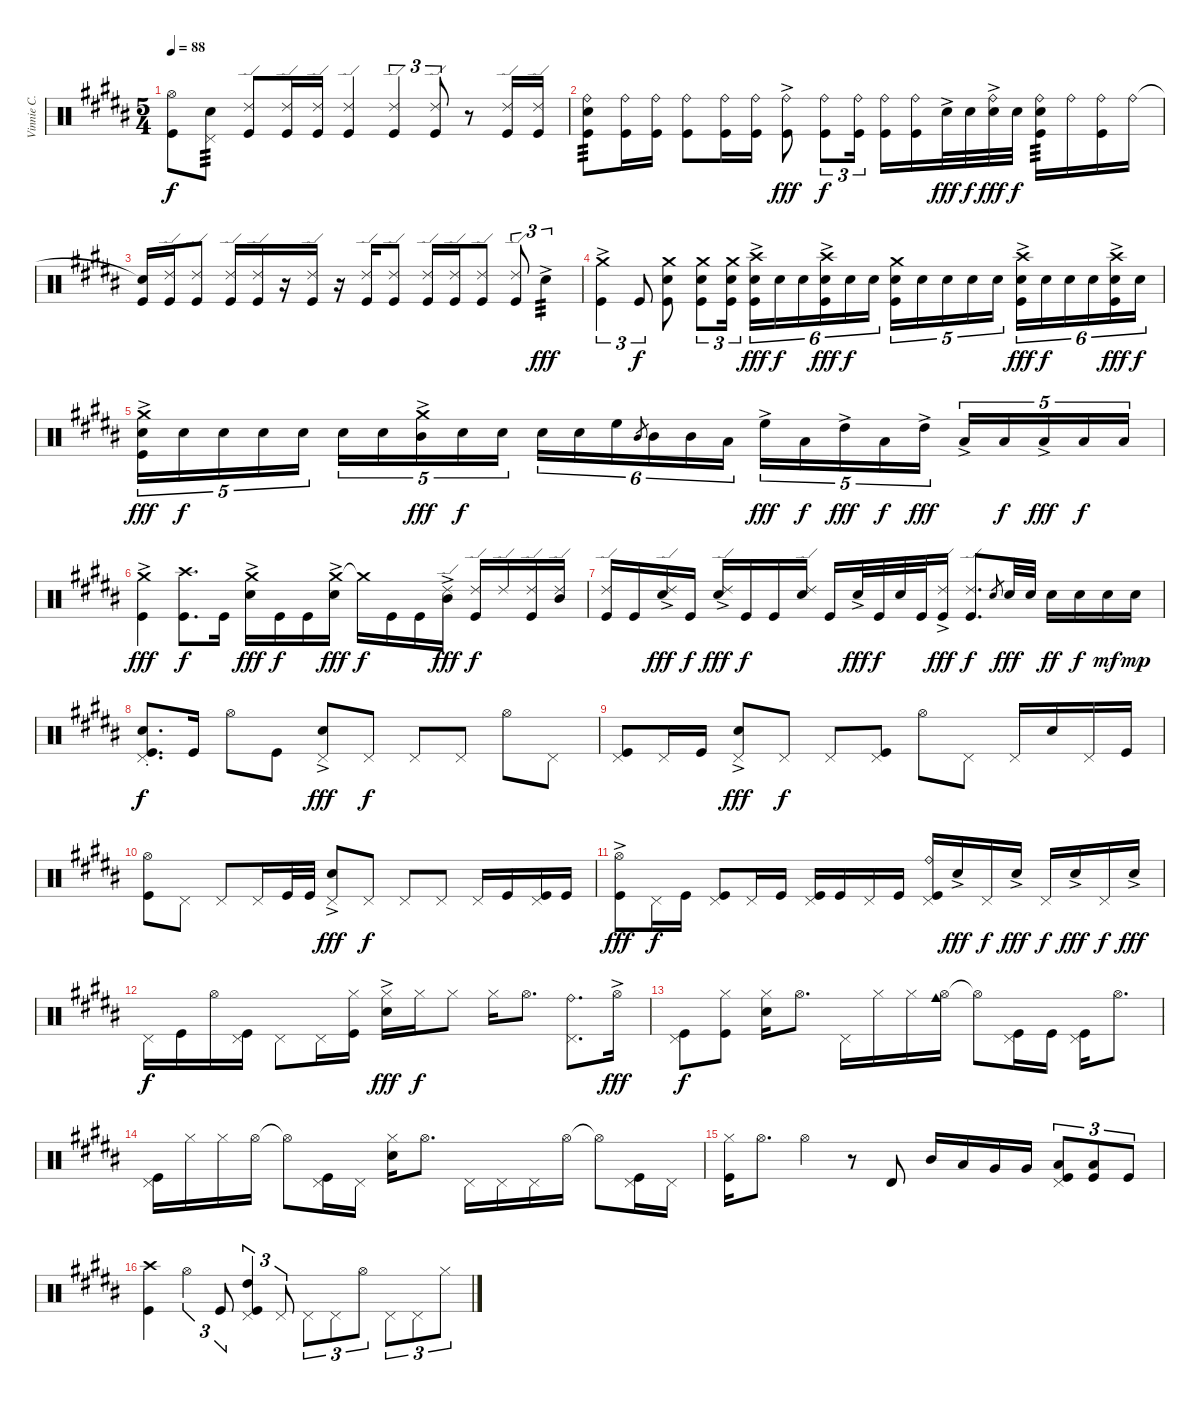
\track ("Vinnie C." "Vinnie C.") {instrument percussion}
\staff {score}
\articulation defaults
\ts (5 4)
\tempo 88
\clef neutral
\ks b
("Hi-Hat (open)" "Kick (hit)").8{dy f} ("Pedal Hi-Hat (hit)" "Electric Snare (hit)").8{tp 3} ("Ride (edge) 2" "Kick (hit)").8 ("Ride (edge) 2" "Kick (hit)").16 ("Ride (edge) 2" "Kick (hit)").16 ("Ride (edge) 2" "Kick (hit)").4 ("Ride (edge) 2" "Kick (hit)").4{tu (3 2)} ("Ride (edge) 2" "Kick (hit)").8{tu (3 2)} r.8 ("Ride (edge) 2" "Kick (hit)").16 ("Ride (edge) 2" "Kick (hit)").16 |
("Ride (bell)" "Electric Snare (hit)" "Kick (hit)").8{tp 3} ("Ride (bell)" "Kick (hit)").16 ("Ride (bell)" "Kick (hit)").16 ("Ride (bell)" "Kick (hit)").8 ("Ride (bell)" "Kick (hit)").16 ("Ride (bell)" "Kick (hit)").16 ("Ride (bell)"{ac} "Kick (hit)").8{dy fff} ("Ride (bell)" "Kick (hit)").8{tu (3 2) dy f} ("Ride (bell)" "Kick (hit)").16{tu (3 2)} ("Ride (bell)" "Kick (hit)").16 ("Ride (bell)" "Kick (hit)").16 "Electric Snare (hit)"{ac}.32{dy fff} "Electric Snare (hit)".32{dy f} ("Ride (bell)" "Electric Snare (hit)"{ac}).32{dy fff} "Electric Snare (hit)".32{dy f} ("Ride (bell)" "Electric Snare (hit)" "Kick (hit)").16{tp 3} "Ride (bell)".16 ("Ride (bell)" "Kick (hit)").16 "Ride (bell)".16 |
("Electric Snare (hit)"{t} "Kick (hit)").16 ("Ride (edge) 2" "Kick (hit)").16 ("Ride (edge) 2" "Kick (hit)").8 ("Ride (edge) 2" "Kick (hit)").16 ("Ride (edge) 2" "Kick (hit)").16 r.16 ("Ride (edge) 2" "Kick (hit)").16 r.16 ("Ride (edge) 2" "Kick (hit)").16 ("Ride (edge) 2" "Kick (hit)").8 ("Ride (edge) 2" "Kick (hit)").16 ("Ride (edge) 2" "Kick (hit)").16 ("Ride (edge) 2" "Kick (hit)").8 ("Ride (edge) 2" "Kick (hit)").8{tu (3 2)} "Electric Snare (hit)"{ac}.4{tu (3 2) tp 3 dy fff} |
("Crash medium (hit)"{ac} "Kick (hit)").4{tu (3 2)} "Kick (hit)".8{tu (3 2) dy f} ("Crash medium (hit)" "Electric Snare (hit)" "Kick (hit)").8 ("Crash medium (hit)" "Electric Snare (hit)" "Kick (hit)").8{tu (3 2)} ("Crash medium (hit)" "Electric Snare (hit)" "Kick (hit)").16{tu (3 2)} ("Crash high (hit)"{ac} "Electric Snare (hit)" "Kick (hit)").16{tu (6 4) dy fff} "Electric Snare (hit)".16{tu (6 4) dy f} "Electric Snare (hit)".16{tu (6 4)} ("Crash high (hit)"{ac} "Electric Snare (hit)" "Kick (hit)").16{tu (6 4) dy fff} "Electric Snare (hit)".16{tu (6 4) dy f} "Electric Snare (hit)".16{tu (6 4)} ("Crash medium (hit)" "Electric Snare (hit)" "Kick (hit)").16{tu (5 4)} "Electric Snare (hit)".16{tu (5 4)} "Electric Snare (hit)".16{tu (5 4)} "Electric Snare (hit)".16{tu (5 4)} "Electric Snare (hit)".16{tu (5 4)} ("Crash high (hit)"{ac} "Electric Snare (hit)" "Kick (hit)").16{tu (6 4) dy fff} "Electric Snare (hit)".16{tu (6 4) dy f} "Electric Snare (hit)".16{tu (6 4)} "Electric Snare (hit)".16{tu (6 4)} ("Crash high (hit)"{ac} "Electric Snare (hit)" "Kick (hit)").16{tu (6 4) dy fff} "Electric Snare (hit)".16{tu (6 4) dy f} |
("Crash medium (hit)"{ac} "Electric Snare (hit)" "Kick (hit)").16{tu (5 4) dy fff} "Electric Snare (hit)".16{tu (5 4) dy f} "Electric Snare (hit)".16{tu (5 4)} "Electric Snare (hit)".16{tu (5 4)} "Electric Snare (hit)".16{tu (5 4)} "Electric Snare (hit)".16{tu (5 4)} "Electric Snare (hit)".16{tu (5 4)} ("Crash medium (hit)"{ac} "Mid Tom (hit)").16{tu (5 4) dy fff} "Electric Snare (hit)".16{tu (5 4) dy f} "Electric Snare (hit)".16{tu (5 4)} "Electric Snare (hit)".16{tu (6 4)} "Electric Snare (hit)".16{tu (6 4)} "High Floor Tom (hit)".16{tu (6 4)} "Mid Tom (hit)".8{gr} "Mid Tom (hit)".16{tu (6 4)} "Mid Tom (hit)".16{tu (6 4)} "Low Tom (hit)".16{tu (6 4)} "High Floor Tom (hit)"{ac}.16{tu (5 4) dy fff} "Low Tom (hit)".16{tu (5 4) dy f} "High Tom (hit)"{ac}.16{tu (5 4) dy fff} "Low Tom (hit)".16{tu (5 4) dy f} "High Tom (hit)"{ac}.16{tu (5 4) dy fff} "Low Tom (hit)"{ac}.16{tu (5 4)} "Low Tom (hit)".16{tu (5 4) dy f} "Low Tom (hit)"{ac}.16{tu (5 4) dy fff} "Low Tom (hit)".16{tu (5 4) dy f} "Low Tom (hit)".16{tu (5 4)} |
("Crash medium (hit)"{ac} "Kick (hit)").4{dy fff} ("Crash high (hit)" "Kick (hit)").8{d dy f} "Kick (hit)".16 ("Crash medium (hit)"{ac} "Electric Snare (hit)").16{dy fff} "Kick (hit)".16{dy f} "Kick (hit)".16 ("Crash medium (hit)"{ac} "Electric Snare (hit)").16{dy fff} "Crash medium (hit)"{t}.16{dy f} "Kick (hit)".16 "Kick (hit)".16 ("Ride (edge) 2"{ac} "Mid Tom (hit)").16{dy fff} ("Ride (edge) 2" "Kick (hit)").16{dy f} "Ride (edge) 2".16 ("Ride (edge) 2" "Kick (hit)").16 ("Ride (edge) 2" "Mid Tom (hit)").16 |
("Ride (edge) 2" "Kick (hit)").16 "Kick (hit)".16 ("Ride (edge) 2"{ac} "Electric Snare (hit)").16{dy fff} "Kick (hit)".16{dy f} ("Ride (edge) 2"{ac} "Electric Snare (hit)").16{dy fff} "Kick (hit)".16{dy f} "Kick (hit)".16 ("Ride (edge) 2" "Electric Snare (hit)").16 "Kick (hit)".16 "Electric Snare (hit)"{ac}.32{dy fff} "Kick (hit)".32{dy f} "Electric Snare (hit)".32 "Kick (hit)".32 ("Ride (edge) 2"{ac} "Kick (hit)").16{dy fff} ("Ride (edge) 2" "Kick (hit)").8{d dy f} "Electric Snare (hit)".8{gr} "Electric Snare (hit)".32{dy fff} "Electric Snare (hit)".32 "Electric Snare (hit)".16{dy ff} "Electric Snare (hit)".16{dy f} "Electric Snare (hit)".16{dy mf} "Electric Snare (hit)".16{dy mp} |
("Pedal Hi-Hat (hit)"{st} "Electric Snare (hit)" "Kick (hit)").8{d dy f} "Kick (hit)".16 "Hi-Hat (open)".8 "Kick (hit)".8 ("Pedal Hi-Hat (hit)"{ac} "Electric Snare (hit)").8{dy fff} "Pedal Hi-Hat (hit)".8{dy f} "Pedal Hi-Hat (hit)".8 "Pedal Hi-Hat (hit)".8 "Hi-Hat (open)".8 "Pedal Hi-Hat (hit)".8 |
("Pedal Hi-Hat (hit)" "Kick (hit)").8 "Pedal Hi-Hat (hit)".16 "Kick (hit)".16 ("Pedal Hi-Hat (hit)"{ac} "Electric Snare (hit)").8{dy fff} "Pedal Hi-Hat (hit)".8{dy f} "Pedal Hi-Hat (hit)".8 ("Pedal Hi-Hat (hit)" "Kick (hit)").8 "Hi-Hat (open)".8 "Pedal Hi-Hat (hit)".8 "Pedal Hi-Hat (hit)".16 "Electric Snare (hit)".16 "Pedal Hi-Hat (hit)".16 "Kick (hit)".16 |
("Hi-Hat (open)" "Kick (hit)").8 "Pedal Hi-Hat (hit)".8 "Pedal Hi-Hat (hit)".8 "Pedal Hi-Hat (hit)".16 "Kick (hit)".32 "Kick (hit)".32 ("Pedal Hi-Hat (hit)"{ac} "Electric Snare (hit)").8{dy fff} "Pedal Hi-Hat (hit)".8{dy f} "Pedal Hi-Hat (hit)".8 "Pedal Hi-Hat (hit)".8 "Pedal Hi-Hat (hit)".16 "Kick (hit)".16 ("Pedal Hi-Hat (hit)" "Kick (hit)").16 "Kick (hit)".16 |
("Hi-Hat (open)"{ac} "Kick (hit)").8{dy fff} "Pedal Hi-Hat (hit)".16{dy f} "Kick (hit)".16 ("Pedal Hi-Hat (hit)" "Kick (hit)").8 "Pedal Hi-Hat (hit)".16 "Kick (hit)".16 ("Pedal Hi-Hat (hit)" "Kick (hit)").16 "Kick (hit)".16 "Pedal Hi-Hat (hit)".16 "Kick (hit)".16 ("Pedal Hi-Hat (hit)" "Ride (bell)" "Kick (hit)").16 "Electric Snare (hit)"{ac}.16{dy fff} "Pedal Hi-Hat (hit)".16{dy f} "Electric Snare (hit)"{ac}.16{dy fff} "Pedal Hi-Hat (hit)".16{dy f} "Electric Snare (hit)"{ac}.16{dy fff} "Pedal Hi-Hat (hit)".16{dy f} "Electric Snare (hit)"{ac}.16{dy fff} |
"Pedal Hi-Hat (hit)".16{dy f} "Kick (hit)".16 "Hi-Hat (open)".16 ("Pedal Hi-Hat (hit)" "Kick (hit)").16 "Pedal Hi-Hat (hit)".8 "Pedal Hi-Hat (hit)".16 ("Hi-Hat (closed)" "Kick (hit)").16 ("Hi-Hat (closed)"{ac} "Electric Snare (hit)").16{dy fff} "Hi-Hat (closed)".16{dy f} "Hi-Hat (closed)".8 "Hi-Hat (closed)".16 "Hi-Hat (open)".8{d} ("Pedal Hi-Hat (hit)" "Ride (bell)").8{d} "Hi-Hat (open)"{ac}.16{dy fff} |
("Pedal Hi-Hat (hit)" "Kick (hit)").8{dy f} ("Hi-Hat (closed)" "Kick (hit)").8 ("Hi-Hat (closed)" "Electric Snare (hit)").16 "Hi-Hat (open)".8{d} "Pedal Hi-Hat (hit)".16 "Hi-Hat (closed)".16 "Hi-Hat (closed)".16 ("Hi-Hat (open)" "Cowbell medium (hit)").16 "Hi-Hat (open)"{t}.8 ("Pedal Hi-Hat (hit)" "Kick (hit)").16 "Kick (hit)".16 ("Pedal Hi-Hat (hit)" "Kick (hit)").16 "Hi-Hat (open)".8{d} |
("Pedal Hi-Hat (hit)" "Kick (hit)").16 "Hi-Hat (closed)".16 "Hi-Hat (closed)".16 "Hi-Hat (open)".16 "Hi-Hat (open)"{t}.8 ("Pedal Hi-Hat (hit)" "Kick (hit)").16 "Pedal Hi-Hat (hit)".16 ("Hi-Hat (closed)" "Electric Snare (hit)").16 "Hi-Hat (open)".8{d} "Pedal Hi-Hat (hit)".16 "Pedal Hi-Hat (hit)".16 "Pedal Hi-Hat (hit)".16 "Hi-Hat (open)".16 "Hi-Hat (open)"{t}.8 ("Pedal Hi-Hat (hit)" "Kick (hit)").16 "Pedal Hi-Hat (hit)".16 |
("Hi-Hat (closed)" "Kick (hit)").16 "Hi-Hat (open)".8{d} "Hi-Hat (open)".4 r.8 "Timbale high (hit)".8 "Mid Tom (hit)".16 "Low Tom (hit)".16 "Very Low Tom (hit)".16 "Very Low Tom (hit)".16 ("Pedal Hi-Hat (hit)" "Low Floor Tom (hit)" "Kick (hit)").8{tu (3 2)} ("Low Floor Tom (hit)" "Kick (hit)").8{tu (3 2)} "Kick (hit)".8{tu (3 2)} |
("Crash high (hit)" "Kick (hit)").4 "Hi-Hat (open)".4{tu (3 2)} "Kick (hit)".8{tu (3 2)} ("Pedal Hi-Hat (hit)" "High Tom (hit)" "Kick (hit)").4{tu (3 2)} "Pedal Hi-Hat (hit)".8{tu (3 2)} "Pedal Hi-Hat (hit)".8{tu (3 2)} "Pedal Hi-Hat (hit)".8{tu (3 2)} "Hi-Hat (open)".8{tu (3 2)} "Pedal Hi-Hat (hit)".8{tu (3 2)} "Pedal Hi-Hat (hit)".8{tu (3 2)} "Hi-Hat (closed)".8{tu (3 2)}
